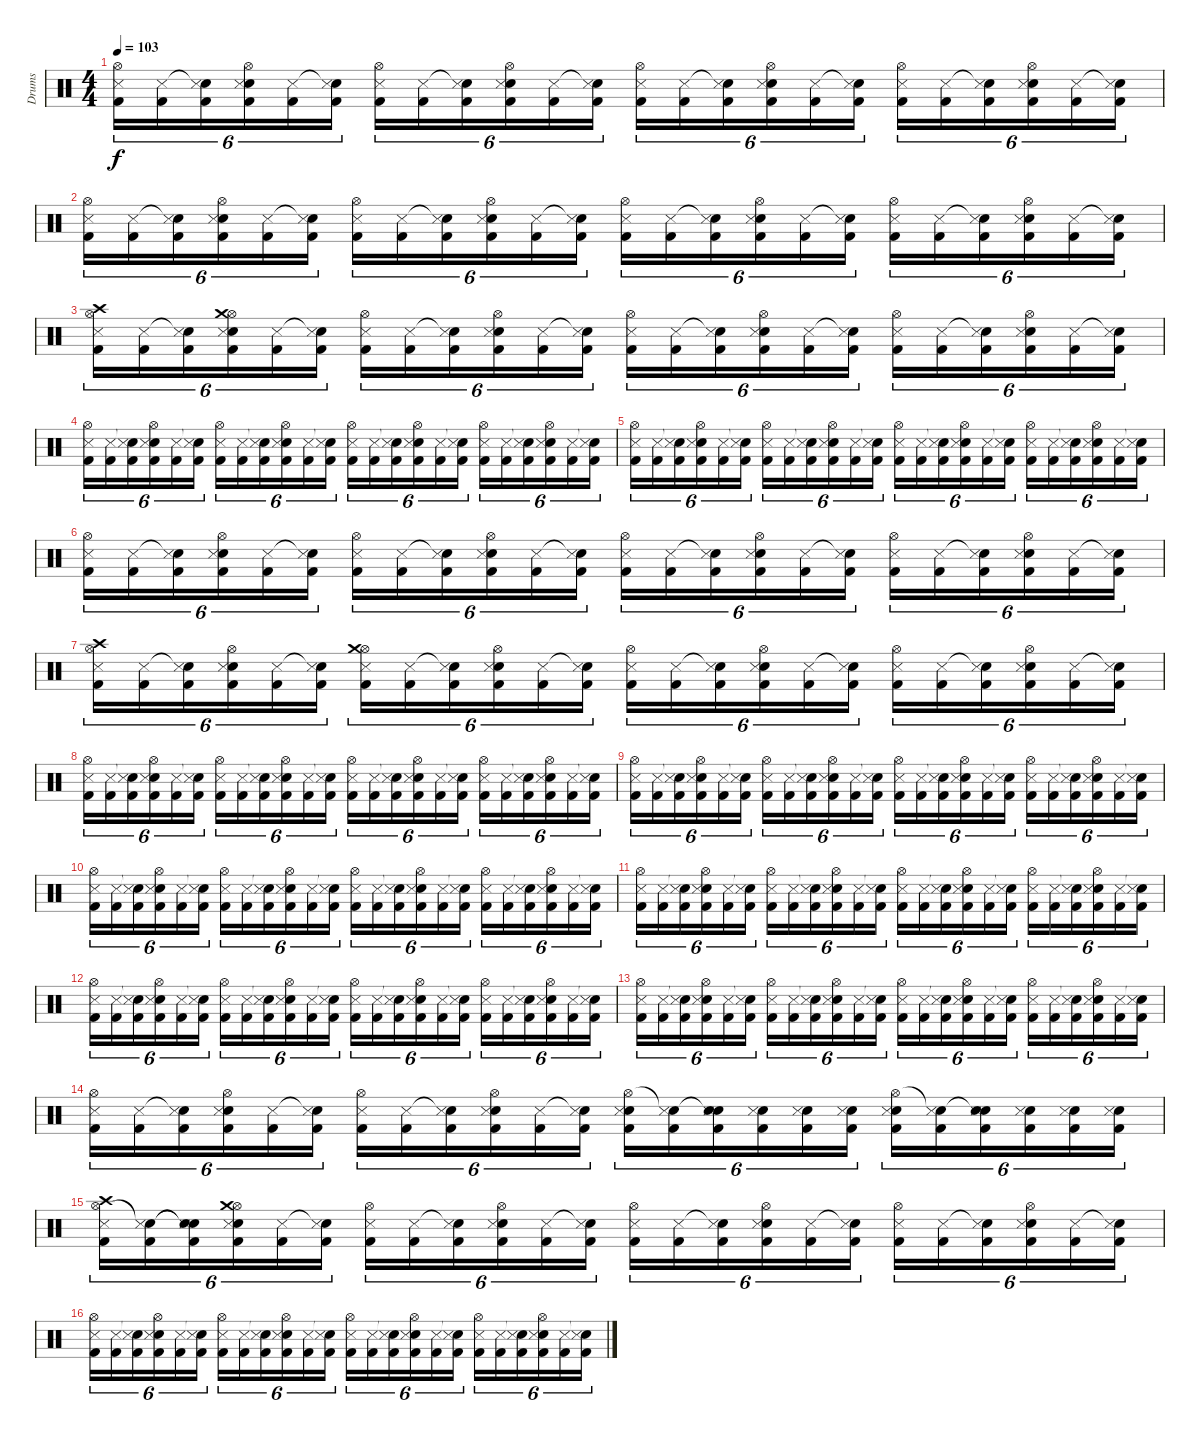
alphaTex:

\track ("Drums" "Drums") {instrument percussion}
\staff {score}
\articulation defaults
\ts (4 4)
\tempo 103
\clef neutral
\ks c
("Hi-Hat (open)" "Snare (side stick) 3" "Kick (hit) 2").16{tu (6 4) dy f} ("Snare (side stick) 3" "Kick (hit) 2").16{tu (6 4)} ("Snare (hit)"{t} "Snare (side stick) 3" "Kick (hit) 2").16{tu (6 4)} ("Hi-Hat (open)" "Electric Snare (hit)" "Snare (side stick) 3" "Kick (hit) 2").16{tu (6 4)} ("Snare (side stick) 3" "Kick (hit) 2").16{tu (6 4)} ("Snare (hit)"{t} "Snare (side stick) 3" "Kick (hit) 2").16{tu (6 4)} ("Hi-Hat (open)" "Snare (side stick) 3" "Kick (hit) 2").16{tu (6 4)} ("Snare (side stick) 3" "Kick (hit) 2").16{tu (6 4)} ("Snare (hit)"{t} "Snare (side stick) 3" "Kick (hit) 2").16{tu (6 4)} ("Hi-Hat (open)" "Electric Snare (hit)" "Snare (side stick) 3" "Kick (hit) 2").16{tu (6 4)} ("Snare (side stick) 3" "Kick (hit) 2").16{tu (6 4)} ("Snare (hit)"{t} "Snare (side stick) 3" "Kick (hit) 2").16{tu (6 4)} ("Hi-Hat (open)" "Snare (side stick) 3" "Kick (hit) 2").16{tu (6 4)} ("Snare (side stick) 3" "Kick (hit) 2").16{tu (6 4)} ("Snare (hit)"{t} "Snare (side stick) 3" "Kick (hit) 2").16{tu (6 4)} ("Hi-Hat (open)" "Electric Snare (hit)" "Snare (side stick) 3" "Kick (hit) 2").16{tu (6 4)} ("Snare (side stick) 3" "Kick (hit) 2").16{tu (6 4)} ("Snare (hit)"{t} "Snare (side stick) 3" "Kick (hit) 2").16{tu (6 4)} ("Hi-Hat (open)" "Snare (side stick) 3" "Kick (hit) 2").16{tu (6 4)} ("Snare (side stick) 3" "Kick (hit) 2").16{tu (6 4)} ("Snare (hit)"{t} "Snare (side stick) 3" "Kick (hit) 2").16{tu (6 4)} ("Hi-Hat (open)" "Electric Snare (hit)" "Snare (side stick) 3" "Kick (hit) 2").16{tu (6 4)} ("Snare (side stick) 3" "Kick (hit) 2").16{tu (6 4)} ("Snare (hit)"{t} "Snare (side stick) 3" "Kick (hit) 2").16{tu (6 4)} |
("Hi-Hat (open)" "Snare (side stick) 3" "Kick (hit) 2").16{tu (6 4)} ("Snare (side stick) 3" "Kick (hit) 2").16{tu (6 4)} ("Snare (hit)"{t} "Snare (side stick) 3" "Kick (hit) 2").16{tu (6 4)} ("Hi-Hat (open)" "Electric Snare (hit)" "Snare (side stick) 3" "Kick (hit) 2").16{tu (6 4)} ("Snare (side stick) 3" "Kick (hit) 2").16{tu (6 4)} ("Snare (hit)"{t} "Snare (side stick) 3" "Kick (hit) 2").16{tu (6 4)} ("Hi-Hat (open)" "Snare (side stick) 3" "Kick (hit) 2").16{tu (6 4)} ("Snare (side stick) 3" "Kick (hit) 2").16{tu (6 4)} ("Snare (hit)"{t} "Snare (side stick) 3" "Kick (hit) 2").16{tu (6 4)} ("Hi-Hat (open)" "Electric Snare (hit)" "Snare (side stick) 3" "Kick (hit) 2").16{tu (6 4)} ("Snare (side stick) 3" "Kick (hit) 2").16{tu (6 4)} ("Snare (hit)"{t} "Snare (side stick) 3" "Kick (hit) 2").16{tu (6 4)} ("Hi-Hat (open)" "Snare (side stick) 3" "Kick (hit) 2").16{tu (6 4)} ("Snare (side stick) 3" "Kick (hit) 2").16{tu (6 4)} ("Snare (hit)"{t} "Snare (side stick) 3" "Kick (hit) 2").16{tu (6 4)} ("Hi-Hat (open)" "Electric Snare (hit)" "Snare (side stick) 3" "Kick (hit) 2").16{tu (6 4)} ("Snare (side stick) 3" "Kick (hit) 2").16{tu (6 4)} ("Snare (hit)"{t} "Snare (side stick) 3" "Kick (hit) 2").16{tu (6 4)} ("Hi-Hat (open)" "Snare (side stick) 3" "Kick (hit) 2").16{tu (6 4)} ("Snare (side stick) 3" "Kick (hit) 2").16{tu (6 4)} ("Snare (hit)"{t} "Snare (side stick) 3" "Kick (hit) 2").16{tu (6 4)} ("Hi-Hat (open)" "Electric Snare (hit)" "Snare (side stick) 3" "Kick (hit) 2").16{tu (6 4)} ("Snare (side stick) 3" "Kick (hit) 2").16{tu (6 4)} ("Snare (hit)"{t} "Snare (side stick) 3" "Kick (hit) 2").16{tu (6 4)} |
("Hi-Hat (open)" "Crash high (hit)" "Snare (side stick) 3" "Kick (hit) 2").16{tu (6 4)} ("Snare (side stick) 3" "Kick (hit) 2").16{tu (6 4)} ("Snare (hit)"{t} "Snare (side stick) 3" "Kick (hit) 2").16{tu (6 4)} ("Hi-Hat (open)" "Electric Snare (hit)" "Crash medium (hit)" "Snare (side stick) 3" "Kick (hit) 2").16{tu (6 4)} ("Snare (side stick) 3" "Kick (hit) 2").16{tu (6 4)} ("Snare (hit)"{t} "Snare (side stick) 3" "Kick (hit) 2").16{tu (6 4)} ("Hi-Hat (open)" "Snare (side stick) 3" "Kick (hit) 2").16{tu (6 4)} ("Snare (side stick) 3" "Kick (hit) 2").16{tu (6 4)} ("Snare (hit)"{t} "Snare (side stick) 3" "Kick (hit) 2").16{tu (6 4)} ("Hi-Hat (open)" "Electric Snare (hit)" "Snare (side stick) 3" "Kick (hit) 2").16{tu (6 4)} ("Snare (side stick) 3" "Kick (hit) 2").16{tu (6 4)} ("Snare (hit)"{t} "Snare (side stick) 3" "Kick (hit) 2").16{tu (6 4)} ("Hi-Hat (open)" "Snare (side stick) 3" "Kick (hit) 2").16{tu (6 4)} ("Snare (side stick) 3" "Kick (hit) 2").16{tu (6 4)} ("Snare (hit)"{t} "Snare (side stick) 3" "Kick (hit) 2").16{tu (6 4)} ("Hi-Hat (open)" "Electric Snare (hit)" "Snare (side stick) 3" "Kick (hit) 2").16{tu (6 4)} ("Snare (side stick) 3" "Kick (hit) 2").16{tu (6 4)} ("Snare (hit)"{t} "Snare (side stick) 3" "Kick (hit) 2").16{tu (6 4)} ("Hi-Hat (open)" "Snare (side stick) 3" "Kick (hit) 2").16{tu (6 4)} ("Snare (side stick) 3" "Kick (hit) 2").16{tu (6 4)} ("Snare (hit)"{t} "Snare (side stick) 3" "Kick (hit) 2").16{tu (6 4)} ("Hi-Hat (open)" "Electric Snare (hit)" "Snare (side stick) 3" "Kick (hit) 2").16{tu (6 4)} ("Snare (side stick) 3" "Kick (hit) 2").16{tu (6 4)} ("Snare (hit)"{t} "Snare (side stick) 3" "Kick (hit) 2").16{tu (6 4)} |
("Hi-Hat (open)" "Snare (side stick) 3" "Kick (hit) 2").16{tu (6 4)} ("Snare (side stick) 3" "Kick (hit) 2").16{tu (6 4)} ("Snare (hit)"{t} "Snare (side stick) 3" "Kick (hit) 2").16{tu (6 4)} ("Hi-Hat (open)" "Electric Snare (hit)" "Snare (side stick) 3" "Kick (hit) 2").16{tu (6 4)} ("Snare (side stick) 3" "Kick (hit) 2").16{tu (6 4)} ("Snare (hit)"{t} "Snare (side stick) 3" "Kick (hit) 2").16{tu (6 4)} ("Hi-Hat (open)" "Snare (side stick) 3" "Kick (hit) 2").16{tu (6 4)} ("Snare (side stick) 3" "Kick (hit) 2").16{tu (6 4)} ("Snare (hit)"{t} "Snare (side stick) 3" "Kick (hit) 2").16{tu (6 4)} ("Hi-Hat (open)" "Electric Snare (hit)" "Snare (side stick) 3" "Kick (hit) 2").16{tu (6 4)} ("Snare (side stick) 3" "Kick (hit) 2").16{tu (6 4)} ("Snare (hit)"{t} "Snare (side stick) 3" "Kick (hit) 2").16{tu (6 4)} ("Hi-Hat (open)" "Snare (side stick) 3" "Kick (hit) 2").16{tu (6 4)} ("Snare (side stick) 3" "Kick (hit) 2").16{tu (6 4)} ("Snare (hit)"{t} "Snare (side stick) 3" "Kick (hit) 2").16{tu (6 4)} ("Hi-Hat (open)" "Electric Snare (hit)" "Snare (side stick) 3" "Kick (hit) 2").16{tu (6 4)} ("Snare (side stick) 3" "Kick (hit) 2").16{tu (6 4)} ("Snare (hit)"{t} "Snare (side stick) 3" "Kick (hit) 2").16{tu (6 4)} ("Hi-Hat (open)" "Snare (side stick) 3" "Kick (hit) 2").16{tu (6 4)} ("Snare (side stick) 3" "Kick (hit) 2").16{tu (6 4)} ("Snare (hit)"{t} "Snare (side stick) 3" "Kick (hit) 2").16{tu (6 4)} ("Hi-Hat (open)" "Electric Snare (hit)" "Snare (side stick) 3" "Kick (hit) 2").16{tu (6 4)} ("Snare (side stick) 3" "Kick (hit) 2").16{tu (6 4)} ("Snare (hit)"{t} "Snare (side stick) 3" "Kick (hit) 2").16{tu (6 4)} |
("Hi-Hat (open)" "Snare (side stick) 3" "Kick (hit) 2").16{tu (6 4)} ("Snare (side stick) 3" "Kick (hit) 2").16{tu (6 4)} ("Snare (hit)"{t} "Snare (side stick) 3" "Kick (hit) 2").16{tu (6 4)} ("Hi-Hat (open)" "Electric Snare (hit)" "Snare (side stick) 3" "Kick (hit) 2").16{tu (6 4)} ("Snare (side stick) 3" "Kick (hit) 2").16{tu (6 4)} ("Snare (hit)"{t} "Snare (side stick) 3" "Kick (hit) 2").16{tu (6 4)} ("Hi-Hat (open)" "Snare (side stick) 3" "Kick (hit) 2").16{tu (6 4)} ("Snare (side stick) 3" "Kick (hit) 2").16{tu (6 4)} ("Snare (hit)"{t} "Snare (side stick) 3" "Kick (hit) 2").16{tu (6 4)} ("Hi-Hat (open)" "Electric Snare (hit)" "Snare (side stick) 3" "Kick (hit) 2").16{tu (6 4)} ("Snare (side stick) 3" "Kick (hit) 2").16{tu (6 4)} ("Snare (hit)"{t} "Snare (side stick) 3" "Kick (hit) 2").16{tu (6 4)} ("Hi-Hat (open)" "Snare (side stick) 3" "Kick (hit) 2").16{tu (6 4)} ("Snare (side stick) 3" "Kick (hit) 2").16{tu (6 4)} ("Snare (hit)"{t} "Snare (side stick) 3" "Kick (hit) 2").16{tu (6 4)} ("Hi-Hat (open)" "Electric Snare (hit)" "Snare (side stick) 3" "Kick (hit) 2").16{tu (6 4)} ("Snare (side stick) 3" "Kick (hit) 2").16{tu (6 4)} ("Snare (hit)"{t} "Snare (side stick) 3" "Kick (hit) 2").16{tu (6 4)} ("Hi-Hat (open)" "Snare (side stick) 3" "Kick (hit) 2").16{tu (6 4)} ("Snare (side stick) 3" "Kick (hit) 2").16{tu (6 4)} ("Snare (hit)"{t} "Snare (side stick) 3" "Kick (hit) 2").16{tu (6 4)} ("Hi-Hat (open)" "Electric Snare (hit)" "Snare (side stick) 3" "Kick (hit) 2").16{tu (6 4)} ("Snare (side stick) 3" "Kick (hit) 2").16{tu (6 4)} ("Snare (hit)"{t} "Snare (side stick) 3" "Kick (hit) 2").16{tu (6 4)} |
("Hi-Hat (open)" "Snare (side stick) 3" "Kick (hit) 2").16{tu (6 4)} ("Snare (side stick) 3" "Kick (hit) 2").16{tu (6 4)} ("Snare (hit)"{t} "Snare (side stick) 3" "Kick (hit) 2").16{tu (6 4)} ("Hi-Hat (open)" "Electric Snare (hit)" "Snare (side stick) 3" "Kick (hit) 2").16{tu (6 4)} ("Snare (side stick) 3" "Kick (hit) 2").16{tu (6 4)} ("Snare (hit)"{t} "Snare (side stick) 3" "Kick (hit) 2").16{tu (6 4)} ("Hi-Hat (open)" "Snare (side stick) 3" "Kick (hit) 2").16{tu (6 4)} ("Snare (side stick) 3" "Kick (hit) 2").16{tu (6 4)} ("Snare (hit)"{t} "Snare (side stick) 3" "Kick (hit) 2").16{tu (6 4)} ("Hi-Hat (open)" "Electric Snare (hit)" "Snare (side stick) 3" "Kick (hit) 2").16{tu (6 4)} ("Snare (side stick) 3" "Kick (hit) 2").16{tu (6 4)} ("Snare (hit)"{t} "Snare (side stick) 3" "Kick (hit) 2").16{tu (6 4)} ("Hi-Hat (open)" "Snare (side stick) 3" "Kick (hit) 2").16{tu (6 4)} ("Snare (side stick) 3" "Kick (hit) 2").16{tu (6 4)} ("Snare (hit)"{t} "Snare (side stick) 3" "Kick (hit) 2").16{tu (6 4)} ("Hi-Hat (open)" "Electric Snare (hit)" "Snare (side stick) 3" "Kick (hit) 2").16{tu (6 4)} ("Snare (side stick) 3" "Kick (hit) 2").16{tu (6 4)} ("Snare (hit)"{t} "Snare (side stick) 3" "Kick (hit) 2").16{tu (6 4)} ("Hi-Hat (open)" "Snare (side stick) 3" "Kick (hit) 2").16{tu (6 4)} ("Snare (side stick) 3" "Kick (hit) 2").16{tu (6 4)} ("Snare (hit)"{t} "Snare (side stick) 3" "Kick (hit) 2").16{tu (6 4)} ("Hi-Hat (open)" "Electric Snare (hit)" "Snare (side stick) 3" "Kick (hit) 2").16{tu (6 4)} ("Snare (side stick) 3" "Kick (hit) 2").16{tu (6 4)} ("Snare (hit)"{t} "Snare (side stick) 3" "Kick (hit) 2").16{tu (6 4)} |
("Hi-Hat (open)" "Crash high (hit)" "Snare (side stick) 3" "Kick (hit) 2").16{tu (6 4)} ("Snare (side stick) 3" "Kick (hit) 2").16{tu (6 4)} ("Snare (hit)"{t} "Snare (side stick) 3" "Kick (hit) 2").16{tu (6 4)} ("Hi-Hat (open)" "Electric Snare (hit)" "Snare (side stick) 3" "Kick (hit) 2").16{tu (6 4)} ("Snare (side stick) 3" "Kick (hit) 2").16{tu (6 4)} ("Snare (hit)"{t} "Snare (side stick) 3" "Kick (hit) 2").16{tu (6 4)} ("Hi-Hat (open)" "Crash medium (hit)" "Snare (side stick) 3" "Kick (hit) 2").16{tu (6 4)} ("Snare (side stick) 3" "Kick (hit) 2").16{tu (6 4)} ("Snare (hit)"{t} "Snare (side stick) 3" "Kick (hit) 2").16{tu (6 4)} ("Hi-Hat (open)" "Electric Snare (hit)" "Snare (side stick) 3" "Kick (hit) 2").16{tu (6 4)} ("Snare (side stick) 3" "Kick (hit) 2").16{tu (6 4)} ("Snare (hit)"{t} "Snare (side stick) 3" "Kick (hit) 2").16{tu (6 4)} ("Hi-Hat (open)" "Snare (side stick) 3" "Kick (hit) 2").16{tu (6 4)} ("Snare (side stick) 3" "Kick (hit) 2").16{tu (6 4)} ("Snare (hit)"{t} "Snare (side stick) 3" "Kick (hit) 2").16{tu (6 4)} ("Hi-Hat (open)" "Electric Snare (hit)" "Snare (side stick) 3" "Kick (hit) 2").16{tu (6 4)} ("Snare (side stick) 3" "Kick (hit) 2").16{tu (6 4)} ("Snare (hit)"{t} "Snare (side stick) 3" "Kick (hit) 2").16{tu (6 4)} ("Hi-Hat (open)" "Snare (side stick) 3" "Kick (hit) 2").16{tu (6 4)} ("Snare (side stick) 3" "Kick (hit) 2").16{tu (6 4)} ("Snare (hit)"{t} "Snare (side stick) 3" "Kick (hit) 2").16{tu (6 4)} ("Hi-Hat (open)" "Electric Snare (hit)" "Snare (side stick) 3" "Kick (hit) 2").16{tu (6 4)} ("Snare (side stick) 3" "Kick (hit) 2").16{tu (6 4)} ("Snare (hit)"{t} "Snare (side stick) 3" "Kick (hit) 2").16{tu (6 4)} |
("Hi-Hat (open)" "Snare (side stick) 3" "Kick (hit) 2").16{tu (6 4)} ("Snare (side stick) 3" "Kick (hit) 2").16{tu (6 4)} ("Snare (hit)"{t} "Snare (side stick) 3" "Kick (hit) 2").16{tu (6 4)} ("Hi-Hat (open)" "Electric Snare (hit)" "Snare (side stick) 3" "Kick (hit) 2").16{tu (6 4)} ("Snare (side stick) 3" "Kick (hit) 2").16{tu (6 4)} ("Snare (hit)"{t} "Snare (side stick) 3" "Kick (hit) 2").16{tu (6 4)} ("Hi-Hat (open)" "Snare (side stick) 3" "Kick (hit) 2").16{tu (6 4)} ("Snare (side stick) 3" "Kick (hit) 2").16{tu (6 4)} ("Snare (hit)"{t} "Snare (side stick) 3" "Kick (hit) 2").16{tu (6 4)} ("Hi-Hat (open)" "Electric Snare (hit)" "Snare (side stick) 3" "Kick (hit) 2").16{tu (6 4)} ("Snare (side stick) 3" "Kick (hit) 2").16{tu (6 4)} ("Snare (hit)"{t} "Snare (side stick) 3" "Kick (hit) 2").16{tu (6 4)} ("Hi-Hat (open)" "Snare (side stick) 3" "Kick (hit) 2").16{tu (6 4)} ("Snare (side stick) 3" "Kick (hit) 2").16{tu (6 4)} ("Snare (hit)"{t} "Snare (side stick) 3" "Kick (hit) 2").16{tu (6 4)} ("Hi-Hat (open)" "Electric Snare (hit)" "Snare (side stick) 3" "Kick (hit) 2").16{tu (6 4)} ("Snare (side stick) 3" "Kick (hit) 2").16{tu (6 4)} ("Snare (hit)"{t} "Snare (side stick) 3" "Kick (hit) 2").16{tu (6 4)} ("Hi-Hat (open)" "Snare (side stick) 3" "Kick (hit) 2").16{tu (6 4)} ("Snare (side stick) 3" "Kick (hit) 2").16{tu (6 4)} ("Snare (hit)"{t} "Snare (side stick) 3" "Kick (hit) 2").16{tu (6 4)} ("Hi-Hat (open)" "Electric Snare (hit)" "Snare (side stick) 3" "Kick (hit) 2").16{tu (6 4)} ("Snare (side stick) 3" "Kick (hit) 2").16{tu (6 4)} ("Snare (hit)"{t} "Snare (side stick) 3" "Kick (hit) 2").16{tu (6 4)} |
("Hi-Hat (open)" "Snare (side stick) 3" "Kick (hit) 2").16{tu (6 4)} ("Snare (side stick) 3" "Kick (hit) 2").16{tu (6 4)} ("Snare (hit)"{t} "Snare (side stick) 3" "Kick (hit) 2").16{tu (6 4)} ("Hi-Hat (open)" "Electric Snare (hit)" "Snare (side stick) 3" "Kick (hit) 2").16{tu (6 4)} ("Snare (side stick) 3" "Kick (hit) 2").16{tu (6 4)} ("Snare (hit)"{t} "Snare (side stick) 3" "Kick (hit) 2").16{tu (6 4)} ("Hi-Hat (open)" "Snare (side stick) 3" "Kick (hit) 2").16{tu (6 4)} ("Snare (side stick) 3" "Kick (hit) 2").16{tu (6 4)} ("Snare (hit)"{t} "Snare (side stick) 3" "Kick (hit) 2").16{tu (6 4)} ("Hi-Hat (open)" "Electric Snare (hit)" "Snare (side stick) 3" "Kick (hit) 2").16{tu (6 4)} ("Snare (side stick) 3" "Kick (hit) 2").16{tu (6 4)} ("Snare (hit)"{t} "Snare (side stick) 3" "Kick (hit) 2").16{tu (6 4)} ("Hi-Hat (open)" "Snare (side stick) 3" "Kick (hit) 2").16{tu (6 4)} ("Snare (side stick) 3" "Kick (hit) 2").16{tu (6 4)} ("Snare (hit)"{t} "Snare (side stick) 3" "Kick (hit) 2").16{tu (6 4)} ("Hi-Hat (open)" "Electric Snare (hit)" "Snare (side stick) 3" "Kick (hit) 2").16{tu (6 4)} ("Snare (side stick) 3" "Kick (hit) 2").16{tu (6 4)} ("Snare (hit)"{t} "Snare (side stick) 3" "Kick (hit) 2").16{tu (6 4)} ("Hi-Hat (open)" "Snare (side stick) 3" "Kick (hit) 2").16{tu (6 4)} ("Snare (side stick) 3" "Kick (hit) 2").16{tu (6 4)} ("Snare (hit)"{t} "Snare (side stick) 3" "Kick (hit) 2").16{tu (6 4)} ("Hi-Hat (open)" "Electric Snare (hit)" "Snare (side stick) 3" "Kick (hit) 2").16{tu (6 4)} ("Snare (side stick) 3" "Kick (hit) 2").16{tu (6 4)} ("Snare (hit)"{t} "Snare (side stick) 3" "Kick (hit) 2").16{tu (6 4)} |
("Hi-Hat (open)" "Snare (side stick) 3" "Kick (hit) 2").16{tu (6 4)} ("Snare (side stick) 3" "Kick (hit) 2").16{tu (6 4)} ("Snare (hit)"{t} "Snare (side stick) 3" "Kick (hit) 2").16{tu (6 4)} ("Hi-Hat (open)" "Electric Snare (hit)" "Snare (side stick) 3" "Kick (hit) 2").16{tu (6 4)} ("Snare (side stick) 3" "Kick (hit) 2").16{tu (6 4)} ("Snare (hit)"{t} "Snare (side stick) 3" "Kick (hit) 2").16{tu (6 4)} ("Hi-Hat (open)" "Snare (side stick) 3" "Kick (hit) 2").16{tu (6 4)} ("Snare (side stick) 3" "Kick (hit) 2").16{tu (6 4)} ("Snare (hit)"{t} "Snare (side stick) 3" "Kick (hit) 2").16{tu (6 4)} ("Hi-Hat (open)" "Electric Snare (hit)" "Snare (side stick) 3" "Kick (hit) 2").16{tu (6 4)} ("Snare (side stick) 3" "Kick (hit) 2").16{tu (6 4)} ("Snare (hit)"{t} "Snare (side stick) 3" "Kick (hit) 2").16{tu (6 4)} ("Hi-Hat (open)" "Snare (side stick) 3" "Kick (hit) 2").16{tu (6 4)} ("Snare (side stick) 3" "Kick (hit) 2").16{tu (6 4)} ("Snare (hit)"{t} "Snare (side stick) 3" "Kick (hit) 2").16{tu (6 4)} ("Hi-Hat (open)" "Electric Snare (hit)" "Snare (side stick) 3" "Kick (hit) 2").16{tu (6 4)} ("Snare (side stick) 3" "Kick (hit) 2").16{tu (6 4)} ("Snare (hit)"{t} "Snare (side stick) 3" "Kick (hit) 2").16{tu (6 4)} ("Hi-Hat (open)" "Snare (side stick) 3" "Kick (hit) 2").16{tu (6 4)} ("Snare (side stick) 3" "Kick (hit) 2").16{tu (6 4)} ("Snare (hit)"{t} "Snare (side stick) 3" "Kick (hit) 2").16{tu (6 4)} ("Hi-Hat (open)" "Electric Snare (hit)" "Snare (side stick) 3" "Kick (hit) 2").16{tu (6 4)} ("Snare (side stick) 3" "Kick (hit) 2").16{tu (6 4)} ("Snare (hit)"{t} "Snare (side stick) 3" "Kick (hit) 2").16{tu (6 4)} |
("Hi-Hat (open)" "Snare (side stick) 3" "Kick (hit) 2").16{tu (6 4)} ("Snare (side stick) 3" "Kick (hit) 2").16{tu (6 4)} ("Snare (hit)"{t} "Snare (side stick) 3" "Kick (hit) 2").16{tu (6 4)} ("Hi-Hat (open)" "Electric Snare (hit)" "Snare (side stick) 3" "Kick (hit) 2").16{tu (6 4)} ("Snare (side stick) 3" "Kick (hit) 2").16{tu (6 4)} ("Snare (hit)"{t} "Snare (side stick) 3" "Kick (hit) 2").16{tu (6 4)} ("Hi-Hat (open)" "Snare (side stick) 3" "Kick (hit) 2").16{tu (6 4)} ("Snare (side stick) 3" "Kick (hit) 2").16{tu (6 4)} ("Snare (hit)"{t} "Snare (side stick) 3" "Kick (hit) 2").16{tu (6 4)} ("Hi-Hat (open)" "Electric Snare (hit)" "Snare (side stick) 3" "Kick (hit) 2").16{tu (6 4)} ("Snare (side stick) 3" "Kick (hit) 2").16{tu (6 4)} ("Snare (hit)"{t} "Snare (side stick) 3" "Kick (hit) 2").16{tu (6 4)} ("Hi-Hat (open)" "Snare (side stick) 3" "Kick (hit) 2").16{tu (6 4)} ("Snare (side stick) 3" "Kick (hit) 2").16{tu (6 4)} ("Snare (hit)"{t} "Snare (side stick) 3" "Kick (hit) 2").16{tu (6 4)} ("Hi-Hat (open)" "Electric Snare (hit)" "Snare (side stick) 3" "Kick (hit) 2").16{tu (6 4)} ("Snare (side stick) 3" "Kick (hit) 2").16{tu (6 4)} ("Snare (hit)"{t} "Snare (side stick) 3" "Kick (hit) 2").16{tu (6 4)} ("Hi-Hat (open)" "Snare (side stick) 3" "Kick (hit) 2").16{tu (6 4)} ("Snare (side stick) 3" "Kick (hit) 2").16{tu (6 4)} ("Snare (hit)"{t} "Snare (side stick) 3" "Kick (hit) 2").16{tu (6 4)} ("Hi-Hat (open)" "Electric Snare (hit)" "Snare (side stick) 3" "Kick (hit) 2").16{tu (6 4)} ("Snare (side stick) 3" "Kick (hit) 2").16{tu (6 4)} ("Snare (hit)"{t} "Snare (side stick) 3" "Kick (hit) 2").16{tu (6 4)} |
("Hi-Hat (open)" "Snare (side stick) 3" "Kick (hit) 2").16{tu (6 4)} ("Snare (side stick) 3" "Kick (hit) 2").16{tu (6 4)} ("Snare (hit)"{t} "Snare (side stick) 3" "Kick (hit) 2").16{tu (6 4)} ("Hi-Hat (open)" "Electric Snare (hit)" "Snare (side stick) 3" "Kick (hit) 2").16{tu (6 4)} ("Snare (side stick) 3" "Kick (hit) 2").16{tu (6 4)} ("Snare (hit)"{t} "Snare (side stick) 3" "Kick (hit) 2").16{tu (6 4)} ("Hi-Hat (open)" "Snare (side stick) 3" "Kick (hit) 2").16{tu (6 4)} ("Snare (side stick) 3" "Kick (hit) 2").16{tu (6 4)} ("Snare (hit)"{t} "Snare (side stick) 3" "Kick (hit) 2").16{tu (6 4)} ("Hi-Hat (open)" "Electric Snare (hit)" "Snare (side stick) 3" "Kick (hit) 2").16{tu (6 4)} ("Snare (side stick) 3" "Kick (hit) 2").16{tu (6 4)} ("Snare (hit)"{t} "Snare (side stick) 3" "Kick (hit) 2").16{tu (6 4)} ("Hi-Hat (open)" "Snare (side stick) 3" "Kick (hit) 2").16{tu (6 4)} ("Snare (side stick) 3" "Kick (hit) 2").16{tu (6 4)} ("Snare (hit)"{t} "Snare (side stick) 3" "Kick (hit) 2").16{tu (6 4)} ("Hi-Hat (open)" "Electric Snare (hit)" "Snare (side stick) 3" "Kick (hit) 2").16{tu (6 4)} ("Snare (side stick) 3" "Kick (hit) 2").16{tu (6 4)} ("Snare (hit)"{t} "Snare (side stick) 3" "Kick (hit) 2").16{tu (6 4)} ("Hi-Hat (open)" "Snare (side stick) 3" "Kick (hit) 2").16{tu (6 4)} ("Snare (side stick) 3" "Kick (hit) 2").16{tu (6 4)} ("Snare (hit)"{t} "Snare (side stick) 3" "Kick (hit) 2").16{tu (6 4)} ("Hi-Hat (open)" "Electric Snare (hit)" "Snare (side stick) 3" "Kick (hit) 2").16{tu (6 4)} ("Snare (side stick) 3" "Kick (hit) 2").16{tu (6 4)} ("Snare (hit)"{t} "Snare (side stick) 3" "Kick (hit) 2").16{tu (6 4)} |
("Hi-Hat (open)" "Snare (side stick) 3" "Kick (hit) 2").16{tu (6 4)} ("Snare (side stick) 3" "Kick (hit) 2").16{tu (6 4)} ("Snare (hit)"{t} "Snare (side stick) 3" "Kick (hit) 2").16{tu (6 4)} ("Hi-Hat (open)" "Electric Snare (hit)" "Snare (side stick) 3" "Kick (hit) 2").16{tu (6 4)} ("Snare (side stick) 3" "Kick (hit) 2").16{tu (6 4)} ("Snare (hit)"{t} "Snare (side stick) 3" "Kick (hit) 2").16{tu (6 4)} ("Hi-Hat (open)" "Snare (side stick) 3" "Kick (hit) 2").16{tu (6 4)} ("Snare (side stick) 3" "Kick (hit) 2").16{tu (6 4)} ("Snare (hit)"{t} "Snare (side stick) 3" "Kick (hit) 2").16{tu (6 4)} ("Hi-Hat (open)" "Electric Snare (hit)" "Snare (side stick) 3" "Kick (hit) 2").16{tu (6 4)} ("Snare (side stick) 3" "Kick (hit) 2").16{tu (6 4)} ("Snare (hit)"{t} "Snare (side stick) 3" "Kick (hit) 2").16{tu (6 4)} ("Hi-Hat (open)" "Snare (side stick) 3" "Kick (hit) 2").16{tu (6 4)} ("Snare (side stick) 3" "Kick (hit) 2").16{tu (6 4)} ("Snare (hit)"{t} "Snare (side stick) 3" "Kick (hit) 2").16{tu (6 4)} ("Hi-Hat (open)" "Electric Snare (hit)" "Snare (side stick) 3" "Kick (hit) 2").16{tu (6 4)} ("Snare (side stick) 3" "Kick (hit) 2").16{tu (6 4)} ("Snare (hit)"{t} "Snare (side stick) 3" "Kick (hit) 2").16{tu (6 4)} ("Hi-Hat (open)" "Snare (side stick) 3" "Kick (hit) 2").16{tu (6 4)} ("Snare (side stick) 3" "Kick (hit) 2").16{tu (6 4)} ("Snare (hit)"{t} "Snare (side stick) 3" "Kick (hit) 2").16{tu (6 4)} ("Hi-Hat (open)" "Electric Snare (hit)" "Snare (side stick) 3" "Kick (hit) 2").16{tu (6 4)} ("Snare (side stick) 3" "Kick (hit) 2").16{tu (6 4)} ("Snare (hit)"{t} "Snare (side stick) 3" "Kick (hit) 2").16{tu (6 4)} |
("Hi-Hat (open)" "Snare (side stick) 3" "Kick (hit) 2").16{tu (6 4)} ("Snare (side stick) 3" "Kick (hit) 2").16{tu (6 4)} ("Snare (hit)"{t} "Snare (side stick) 3" "Kick (hit) 2").16{tu (6 4)} ("Hi-Hat (open)" "Electric Snare (hit)" "Snare (side stick) 3" "Kick (hit) 2").16{tu (6 4)} ("Snare (side stick) 3" "Kick (hit) 2").16{tu (6 4)} ("Snare (hit)"{t} "Snare (side stick) 3" "Kick (hit) 2").16{tu (6 4)} ("Hi-Hat (open)" "Snare (side stick) 3" "Kick (hit) 2").16{tu (6 4)} ("Snare (side stick) 3" "Kick (hit) 2").16{tu (6 4)} ("Snare (hit)"{t} "Snare (side stick) 3" "Kick (hit) 2").16{tu (6 4)} ("Hi-Hat (open)" "Electric Snare (hit)" "Snare (side stick) 3" "Kick (hit) 2").16{tu (6 4)} ("Snare (side stick) 3" "Kick (hit) 2").16{tu (6 4)} ("Snare (hit)"{t} "Snare (side stick) 3" "Kick (hit) 2").16{tu (6 4)} ("Hi-Hat (open)" "Electric Snare (hit)" "Snare (side stick) 3" "Kick (hit) 2").16{tu (6 4)} ("Snare (hit)"{t} "Snare (side stick) 3" "Kick (hit) 2").16{tu (6 4)} ("Snare (hit)"{t} "Electric Snare (hit)" "Snare (side stick) 3" "Kick (hit) 2").16{tu (6 4)} ("Electric Snare (hit)" "Snare (side stick) 3" "Kick (hit) 2").16{tu (6 4)} ("Electric Snare (hit)" "Snare (side stick) 3" "Kick (hit) 2").16{tu (6 4)} ("Electric Snare (hit)" "Snare (side stick) 3" "Kick (hit) 2").16{tu (6 4)} ("Hi-Hat (open)" "Electric Snare (hit)" "Snare (side stick) 3" "Kick (hit) 2").16{tu (6 4)} ("Snare (hit)"{t} "Snare (side stick) 3" "Kick (hit) 2").16{tu (6 4)} ("Snare (hit)"{t} "Electric Snare (hit)" "Snare (side stick) 3" "Kick (hit) 2").16{tu (6 4)} ("Electric Snare (hit)" "Snare (side stick) 3" "Kick (hit) 2").16{tu (6 4)} ("Electric Snare (hit)" "Snare (side stick) 3" "Kick (hit) 2").16{tu (6 4)} ("Electric Snare (hit)" "Snare (side stick) 3" "Kick (hit) 2").16{tu (6 4)} |
("Hi-Hat (open)" "Crash high (hit)" "Snare (side stick) 3" "Kick (hit) 2").16{tu (6 4)} ("Snare (hit)"{t} "Snare (side stick) 3" "Kick (hit) 2").16{tu (6 4)} ("Snare (hit)"{t} "Snare (hit)"{t} "Snare (side stick) 3" "Kick (hit) 2").16{tu (6 4)} ("Hi-Hat (open)" "Electric Snare (hit)" "Crash medium (hit)" "Snare (side stick) 3" "Kick (hit) 2").16{tu (6 4)} ("Snare (side stick) 3" "Kick (hit) 2").16{tu (6 4)} ("Snare (hit)"{t} "Snare (side stick) 3" "Kick (hit) 2").16{tu (6 4)} ("Hi-Hat (open)" "Snare (side stick) 3" "Kick (hit) 2").16{tu (6 4)} ("Snare (side stick) 3" "Kick (hit) 2").16{tu (6 4)} ("Snare (hit)"{t} "Snare (side stick) 3" "Kick (hit) 2").16{tu (6 4)} ("Hi-Hat (open)" "Electric Snare (hit)" "Snare (side stick) 3" "Kick (hit) 2").16{tu (6 4)} ("Snare (side stick) 3" "Kick (hit) 2").16{tu (6 4)} ("Snare (hit)"{t} "Snare (side stick) 3" "Kick (hit) 2").16{tu (6 4)} ("Hi-Hat (open)" "Snare (side stick) 3" "Kick (hit) 2").16{tu (6 4)} ("Snare (side stick) 3" "Kick (hit) 2").16{tu (6 4)} ("Snare (hit)"{t} "Snare (side stick) 3" "Kick (hit) 2").16{tu (6 4)} ("Hi-Hat (open)" "Electric Snare (hit)" "Snare (side stick) 3" "Kick (hit) 2").16{tu (6 4)} ("Snare (side stick) 3" "Kick (hit) 2").16{tu (6 4)} ("Snare (hit)"{t} "Snare (side stick) 3" "Kick (hit) 2").16{tu (6 4)} ("Hi-Hat (open)" "Snare (side stick) 3" "Kick (hit) 2").16{tu (6 4)} ("Snare (side stick) 3" "Kick (hit) 2").16{tu (6 4)} ("Snare (hit)"{t} "Snare (side stick) 3" "Kick (hit) 2").16{tu (6 4)} ("Hi-Hat (open)" "Electric Snare (hit)" "Snare (side stick) 3" "Kick (hit) 2").16{tu (6 4)} ("Snare (side stick) 3" "Kick (hit) 2").16{tu (6 4)} ("Snare (hit)"{t} "Snare (side stick) 3" "Kick (hit) 2").16{tu (6 4)} |
("Hi-Hat (open)" "Snare (side stick) 3" "Kick (hit) 2").16{tu (6 4)} ("Snare (side stick) 3" "Kick (hit) 2").16{tu (6 4)} ("Snare (hit)"{t} "Snare (side stick) 3" "Kick (hit) 2").16{tu (6 4)} ("Hi-Hat (open)" "Electric Snare (hit)" "Snare (side stick) 3" "Kick (hit) 2").16{tu (6 4)} ("Snare (side stick) 3" "Kick (hit) 2").16{tu (6 4)} ("Snare (hit)"{t} "Snare (side stick) 3" "Kick (hit) 2").16{tu (6 4)} ("Hi-Hat (open)" "Snare (side stick) 3" "Kick (hit) 2").16{tu (6 4)} ("Snare (side stick) 3" "Kick (hit) 2").16{tu (6 4)} ("Snare (hit)"{t} "Snare (side stick) 3" "Kick (hit) 2").16{tu (6 4)} ("Hi-Hat (open)" "Electric Snare (hit)" "Snare (side stick) 3" "Kick (hit) 2").16{tu (6 4)} ("Snare (side stick) 3" "Kick (hit) 2").16{tu (6 4)} ("Snare (hit)"{t} "Snare (side stick) 3" "Kick (hit) 2").16{tu (6 4)} ("Hi-Hat (open)" "Snare (side stick) 3" "Kick (hit) 2").16{tu (6 4)} ("Snare (side stick) 3" "Kick (hit) 2").16{tu (6 4)} ("Snare (hit)"{t} "Snare (side stick) 3" "Kick (hit) 2").16{tu (6 4)} ("Hi-Hat (open)" "Electric Snare (hit)" "Snare (side stick) 3" "Kick (hit) 2").16{tu (6 4)} ("Snare (side stick) 3" "Kick (hit) 2").16{tu (6 4)} ("Snare (hit)"{t} "Snare (side stick) 3" "Kick (hit) 2").16{tu (6 4)} ("Hi-Hat (open)" "Snare (side stick) 3" "Kick (hit) 2").16{tu (6 4)} ("Snare (side stick) 3" "Kick (hit) 2").16{tu (6 4)} ("Snare (hit)"{t} "Snare (side stick) 3" "Kick (hit) 2").16{tu (6 4)} ("Hi-Hat (open)" "Electric Snare (hit)" "Snare (side stick) 3" "Kick (hit) 2").16{tu (6 4)} ("Snare (side stick) 3" "Kick (hit) 2").16{tu (6 4)} ("Snare (hit)"{t} "Snare (side stick) 3" "Kick (hit) 2").16{tu (6 4)}
